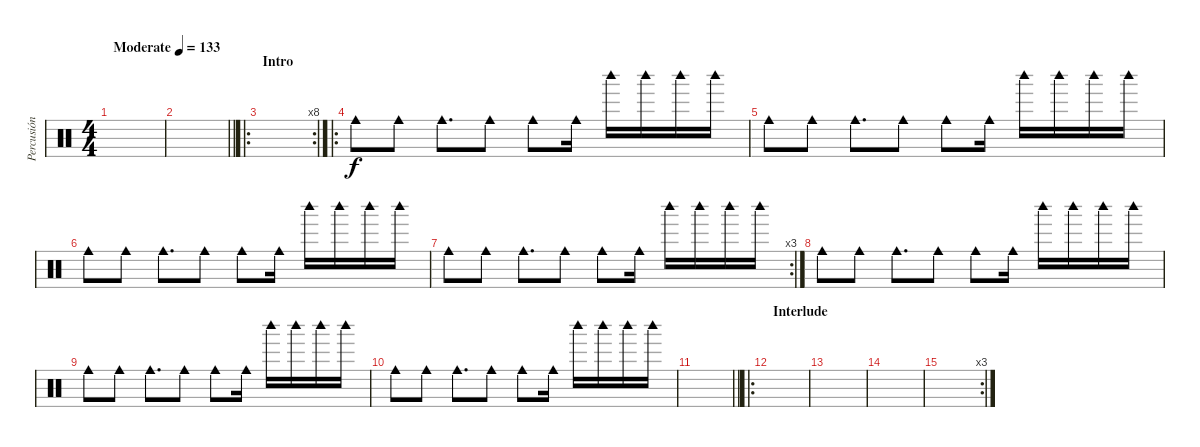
\track ("Percusión Menor" "Percusión ") {instrument percussion}
\staff {score}
\articulation defaults
\ts (4 4)
\tempo (133 "Moderate")
\clef neutral
\ks c
|
\barLineRight lightlight
|
\ro
\rc 8
\section ("" "Intro")
|
\ro "Cowbell medium (hit)".8 "Cowbell medium (hit)".8 "Cowbell medium (hit)".8{d} "Cowbell medium (hit)".8 "Cowbell medium (hit)".8 "Cowbell medium (hit)".16 "Woodblock high (hit)".16 "Woodblock high (hit)".16 "Woodblock high (hit)".16 "Woodblock high (hit)".16
|
"Cowbell medium (hit)".8 "Cowbell medium (hit)".8 "Cowbell medium (hit)".8{d} "Cowbell medium (hit)".8 "Cowbell medium (hit)".8 "Cowbell medium (hit)".16 "Woodblock high (hit)".16 "Woodblock high (hit)".16 "Woodblock high (hit)".16 "Woodblock high (hit)".16 |
"Cowbell medium (hit)".8 "Cowbell medium (hit)".8 "Cowbell medium (hit)".8{d} "Cowbell medium (hit)".8 "Cowbell medium (hit)".8 "Cowbell medium (hit)".16 "Woodblock high (hit)".16 "Woodblock high (hit)".16 "Woodblock high (hit)".16 "Woodblock high (hit)".16 |
\rc 3 "Cowbell medium (hit)".8 "Cowbell medium (hit)".8 "Cowbell medium (hit)".8{d} "Cowbell medium (hit)".8 "Cowbell medium (hit)".8 "Cowbell medium (hit)".16 "Woodblock high (hit)".16 "Woodblock high (hit)".16 "Woodblock high (hit)".16 "Woodblock high (hit)".16
|
"Cowbell medium (hit)".8 "Cowbell medium (hit)".8 "Cowbell medium (hit)".8{d} "Cowbell medium (hit)".8 "Cowbell medium (hit)".8 "Cowbell medium (hit)".16 "Woodblock high (hit)".16 "Woodblock high (hit)".16 "Woodblock high (hit)".16 "Woodblock high (hit)".16 |
"Cowbell medium (hit)".8 "Cowbell medium (hit)".8 "Cowbell medium (hit)".8{d} "Cowbell medium (hit)".8 "Cowbell medium (hit)".8 "Cowbell medium (hit)".16 "Woodblock high (hit)".16 "Woodblock high (hit)".16 "Woodblock high (hit)".16 "Woodblock high (hit)".16 |
"Cowbell medium (hit)".8 "Cowbell medium (hit)".8 "Cowbell medium (hit)".8{d} "Cowbell medium (hit)".8 "Cowbell medium (hit)".8 "Cowbell medium (hit)".16 "Woodblock high (hit)".16 "Woodblock high (hit)".16 "Woodblock high (hit)".16 "Woodblock high (hit)".16 |
\barLineRight lightlight
|
\ro
\section ("" "Interlude")
|
|
|
\rc 3
